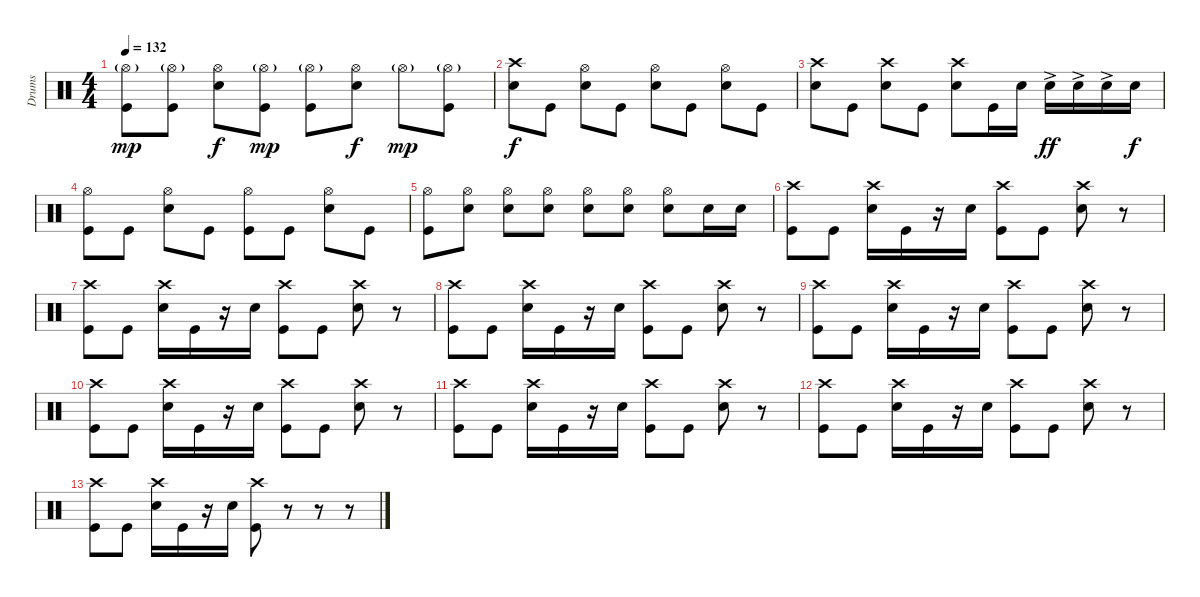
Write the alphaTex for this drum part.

\track ("Drums" "Drums") {instrument percussion}
\staff {score}
\articulation defaults
\ts (4 4)
\tempo 132
\clef neutral
\ks c
("Hi-Hat (open)"{g} "Kick (hit)").8{dy mp} ("Hi-Hat (open)"{g} "Kick (hit)").8 ("Hi-Hat (open)" "Snare (hit) 2").8{dy f} ("Hi-Hat (open)"{g} "Kick (hit)").8{dy mp} ("Hi-Hat (open)"{g} "Kick (hit)").8 ("Hi-Hat (open)" "Snare (hit) 2").8{dy f} "Hi-Hat (open)"{g}.8{dy mp} ("Hi-Hat (open)"{g} "Kick (hit)").8 |
("Crash high (hit)" "Snare (hit) 2").8{dy f} "Kick (hit)".8 ("Hi-Hat (open)" "Snare (hit) 2").8 "Kick (hit)".8 ("Hi-Hat (open)" "Snare (hit) 2").8 "Kick (hit)".8 ("Hi-Hat (open)" "Snare (hit) 2").8 "Kick (hit)".8 |
("Crash high (hit)" "Snare (hit) 2").8 "Kick (hit)".8 ("Crash high (hit)" "Snare (hit) 2").8 "Kick (hit)".8 ("Crash high (hit)" "Snare (hit) 2").8 "Kick (hit)".16 "Snare (hit) 2".16 "Snare (hit) 2"{ac}.16{dy ff} "Snare (hit) 2"{ac}.16 "Snare (hit) 2"{ac}.16 "Snare (hit) 2".16{dy f} |
("Hi-Hat (open)" "Kick (hit)").8 "Kick (hit)".8 ("Hi-Hat (open)" "Snare (hit) 2").8 "Kick (hit)".8 ("Hi-Hat (open)" "Kick (hit)").8 "Kick (hit)".8 ("Hi-Hat (open)" "Snare (hit) 2").8 "Kick (hit)".8 |
("Hi-Hat (open)" "Kick (hit)").8 ("Hi-Hat (open)" "Snare (hit) 2").8 ("Hi-Hat (open)" "Snare (hit) 2").8 ("Hi-Hat (open)" "Snare (hit) 2").8 ("Hi-Hat (open)" "Snare (hit) 2").8 ("Hi-Hat (open)" "Snare (hit) 2").8 ("Hi-Hat (open)" "Snare (hit) 2").8 "Snare (hit) 2".16 "Snare (hit) 2".16 |
("Crash high (hit)" "Kick (hit)").8 "Kick (hit)".8 ("Crash high (hit)" "Snare (hit) 2").16 "Kick (hit)".16 r.16 "Snare (hit) 2".16 ("Crash high (hit)" "Kick (hit)").8 "Kick (hit)".8 ("Crash high (hit)" "Snare (hit) 2").8 r.8 |
("Crash high (hit)" "Kick (hit)").8 "Kick (hit)".8 ("Crash high (hit)" "Snare (hit) 2").16 "Kick (hit)".16 r.16 "Snare (hit) 2".16 ("Crash high (hit)" "Kick (hit)").8 "Kick (hit)".8 ("Crash high (hit)" "Snare (hit) 2").8 r.8 |
("Crash high (hit)" "Kick (hit)").8 "Kick (hit)".8 ("Crash high (hit)" "Snare (hit) 2").16 "Kick (hit)".16 r.16 "Snare (hit) 2".16 ("Crash high (hit)" "Kick (hit)").8 "Kick (hit)".8 ("Crash high (hit)" "Snare (hit) 2").8 r.8 |
("Crash high (hit)" "Kick (hit)").8 "Kick (hit)".8 ("Crash high (hit)" "Snare (hit) 2").16 "Kick (hit)".16 r.16 "Snare (hit) 2".16 ("Crash high (hit)" "Kick (hit)").8 "Kick (hit)".8 ("Crash high (hit)" "Snare (hit) 2").8 r.8 |
("Crash high (hit)" "Kick (hit)").8 "Kick (hit)".8 ("Crash high (hit)" "Snare (hit) 2").16 "Kick (hit)".16 r.16 "Snare (hit) 2".16 ("Crash high (hit)" "Kick (hit)").8 "Kick (hit)".8 ("Crash high (hit)" "Snare (hit) 2").8 r.8 |
("Crash high (hit)" "Kick (hit)").8 "Kick (hit)".8 ("Crash high (hit)" "Snare (hit) 2").16 "Kick (hit)".16 r.16 "Snare (hit) 2".16 ("Crash high (hit)" "Kick (hit)").8 "Kick (hit)".8 ("Crash high (hit)" "Snare (hit) 2").8 r.8 |
("Crash high (hit)" "Kick (hit)").8 "Kick (hit)".8 ("Crash high (hit)" "Snare (hit) 2").16 "Kick (hit)".16 r.16 "Snare (hit) 2".16 ("Crash high (hit)" "Kick (hit)").8 "Kick (hit)".8 ("Crash high (hit)" "Snare (hit) 2").8 r.8 |
("Crash high (hit)" "Kick (hit)").8 "Kick (hit)".8 ("Crash high (hit)" "Snare (hit) 2").16 "Kick (hit)".16 r.16 "Snare (hit) 2".16 ("Crash high (hit)" "Kick (hit)").8 r.8 r.8 r.8
